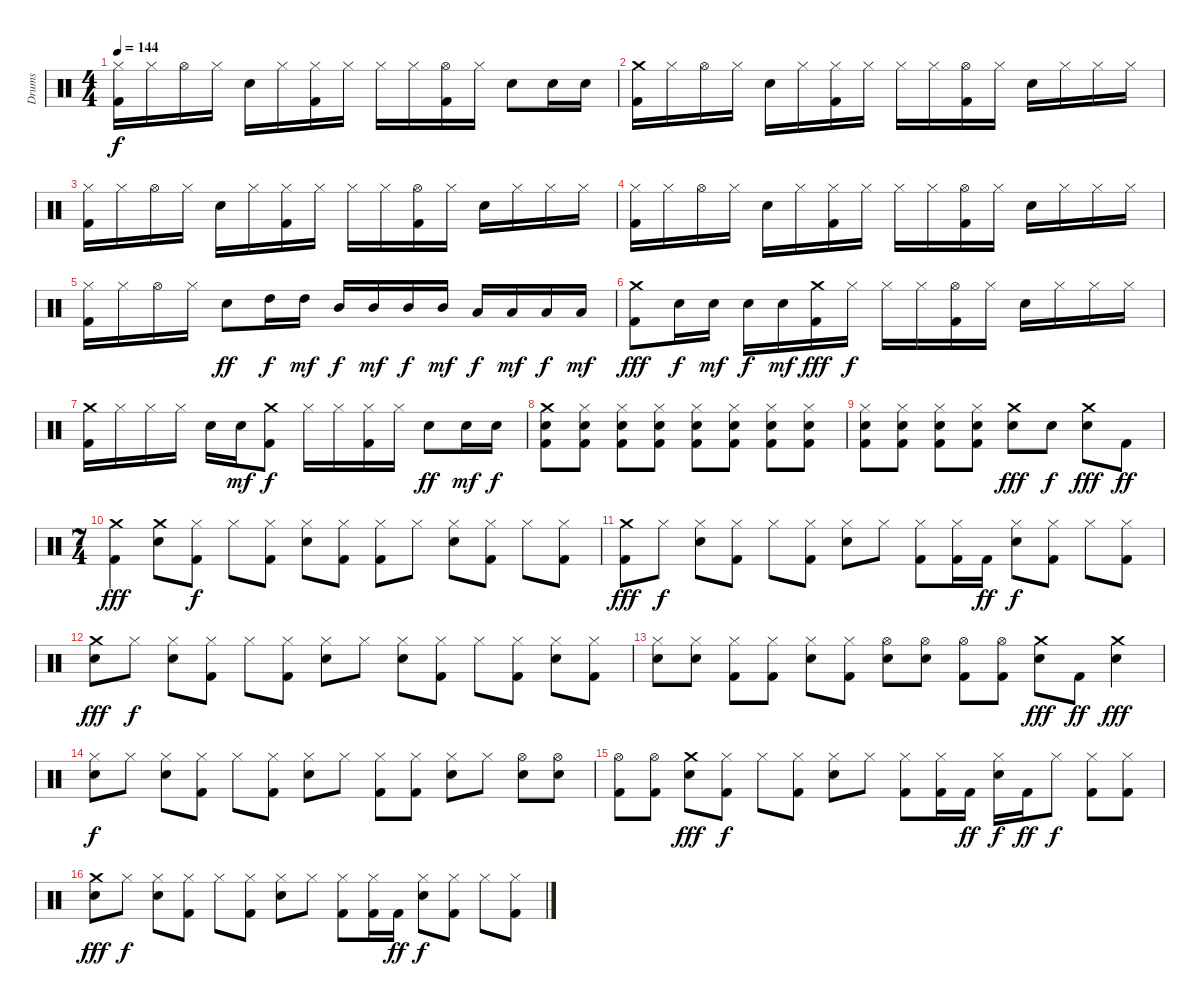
\bracketExtendMode groupsimilarinstruments
\otherSystemsTrackNameOrientation horizontal
\track ("Drumkit" "Drums") {instrument percussion}
\staff {score}
\articulation defaults
\ts (4 4)
\tempo 144
\clef neutral
\ks c
("Hi-Hat (closed)" "Kick (hit) 2").16{dy f beam Down} "Hi-Hat (closed)".16{beam Down} "Hi-Hat (open)".16{beam Down} "Hi-Hat (closed)".16{beam Down} "Snare (hit) 2".16{beam Down} "Hi-Hat (closed)".16{beam Down} ("Hi-Hat (closed)" "Kick (hit) 2").16{beam Down} "Hi-Hat (closed)".16{beam Down} "Hi-Hat (closed)".16{beam Down} "Hi-Hat (closed)".16{beam Down} ("Hi-Hat (open)" "Kick (hit) 2").16{beam Down} "Hi-Hat (closed)".16{beam Down} "Snare (hit) 2".8{beam Down} "Snare (hit) 2".16{beam Down} "Snare (hit) 2".16{beam Down} |
("Crash medium (hit)" "Kick (hit) 2").16{beam Down} "Hi-Hat (closed)".16{beam Down} "Hi-Hat (open)".16{beam Down} "Hi-Hat (closed)".16{beam Down} "Snare (hit) 2".16{beam Down} "Hi-Hat (closed)".16{beam Down} ("Hi-Hat (closed)" "Kick (hit) 2").16{beam Down} "Hi-Hat (closed)".16{beam Down} "Hi-Hat (closed)".16{beam Down} "Hi-Hat (closed)".16{beam Down} ("Hi-Hat (open)" "Kick (hit) 2").16{beam Down} "Hi-Hat (closed)".16{beam Down} "Snare (hit) 2".16{beam Down} "Hi-Hat (closed)".16{beam Down} "Hi-Hat (closed)".16{beam Down} "Hi-Hat (closed)".16{beam Down} |
("Hi-Hat (closed)" "Kick (hit) 2").16{beam Down} "Hi-Hat (closed)".16{beam Down} "Hi-Hat (open)".16{beam Down} "Hi-Hat (closed)".16{beam Down} "Snare (hit) 2".16{beam Down} "Hi-Hat (closed)".16{beam Down} ("Hi-Hat (closed)" "Kick (hit) 2").16{beam Down} "Hi-Hat (closed)".16{beam Down} "Hi-Hat (closed)".16{beam Down} "Hi-Hat (closed)".16{beam Down} ("Hi-Hat (open)" "Kick (hit) 2").16{beam Down} "Hi-Hat (closed)".16{beam Down} "Snare (hit) 2".16{beam Down} "Hi-Hat (closed)".16{beam Down} "Hi-Hat (closed)".16{beam Down} "Hi-Hat (closed)".16{beam Down} |
("Hi-Hat (closed)" "Kick (hit) 2").16{beam Down} "Hi-Hat (closed)".16{beam Down} "Hi-Hat (open)".16{beam Down} "Hi-Hat (closed)".16{beam Down} "Snare (hit) 2".16{beam Down} "Hi-Hat (closed)".16{beam Down} ("Hi-Hat (closed)" "Kick (hit) 2").16{beam Down} "Hi-Hat (closed)".16{beam Down} "Hi-Hat (closed)".16{beam Down} "Hi-Hat (closed)".16{beam Down} ("Hi-Hat (open)" "Kick (hit) 2").16{beam Down} "Hi-Hat (closed)".16{beam Down} "Snare (hit) 2".16{beam Down} "Hi-Hat (closed)".16{beam Down} "Hi-Hat (closed)".16{beam Down} "Hi-Hat (closed)".16{beam Down} |
("Hi-Hat (closed)" "Kick (hit) 2").16{beam Down} "Hi-Hat (closed)".16{beam Down} "Hi-Hat (open)".16{beam Down} "Hi-Hat (closed)".16{beam Down} "Snare (hit) 2".8{dy ff beam Down} "High Tom (hit)".16{dy f beam Down} "High Tom (hit)".16{dy mf beam Down} "Mid Tom (hit)".16{dy f beam Up} "Mid Tom (hit)".16{dy mf beam Up} "Mid Tom (hit)".16{dy f beam Up} "Mid Tom (hit)".16{dy mf beam Up} "Low Tom (hit)".16{dy f beam Up} "Low Tom (hit)".16{dy mf beam Up} "Low Tom (hit)".16{dy f beam Up} "Low Tom (hit)".16{dy mf beam Up} |
("Crash medium (hit)" "Kick (hit) 2").8{dy fff beam Down} "Snare (hit) 2".16{dy f beam Down} "Snare (hit) 2".16{dy mf beam Down} "Snare (hit) 2".16{dy f beam Down} "Snare (hit) 2".16{dy mf beam Down} ("Crash medium (hit)" "Kick (hit) 2").16{dy fff beam Down} "Hi-Hat (closed)".16{dy f beam Down} "Hi-Hat (closed)".16{beam Down} "Hi-Hat (closed)".16{beam Down} ("Hi-Hat (open)" "Kick (hit) 2").16{beam Down} "Hi-Hat (closed)".16{beam Down} "Snare (hit) 2".16{beam Down} "Hi-Hat (closed)".16{beam Down} "Hi-Hat (closed)".16{beam Down} "Hi-Hat (closed)".16{beam Down} |
("Crash medium (hit)" "Kick (hit) 2").16{beam Down} "Hi-Hat (closed)".16{beam Down} "Hi-Hat (closed)".16{beam Down} "Hi-Hat (closed)".16{beam Down} "Snare (hit) 2".16{beam Down} "Snare (hit) 2".16{dy mf beam Down} ("Crash medium (hit)" "Kick (hit) 2").8{dy f beam Down} "Hi-Hat (closed)".16{beam Down} "Hi-Hat (closed)".16{beam Down} ("Hi-Hat (closed)" "Kick (hit) 2").16{beam Down} "Hi-Hat (closed)".16{beam Down} "Snare (hit) 2".8{dy ff beam Down} "Snare (hit) 2".16{dy mf beam Down} "Snare (hit) 2".16{dy f beam Down} |
("Crash medium (hit)" "Snare (hit) 2" "Kick (hit) 2").8{beam Down} ("Hi-Hat (closed)" "Snare (hit) 2" "Kick (hit) 2").8{beam Down} ("Hi-Hat (closed)" "Snare (hit) 2" "Kick (hit) 2").8{beam Down} ("Hi-Hat (closed)" "Snare (hit) 2" "Kick (hit) 2").8{beam Down} ("Hi-Hat (closed)" "Snare (hit) 2" "Kick (hit) 2").8{beam Down} ("Hi-Hat (closed)" "Snare (hit) 2" "Kick (hit) 2").8{beam Down} ("Hi-Hat (closed)" "Snare (hit) 2" "Kick (hit) 2").8{beam Down} ("Hi-Hat (closed)" "Snare (hit) 2" "Kick (hit) 2").8{beam Down} |
("Hi-Hat (closed)" "Snare (hit) 2" "Kick (hit) 2").8{beam Down} ("Hi-Hat (closed)" "Snare (hit) 2" "Kick (hit) 2").8{beam Down} ("Hi-Hat (closed)" "Snare (hit) 2" "Kick (hit) 2").8{beam Down} ("Hi-Hat (closed)" "Snare (hit) 2" "Kick (hit) 2").8{beam Down} ("Crash medium (hit)" "Snare (hit) 2").8{dy fff beam Down} "Snare (hit) 2".8{dy f beam Down} ("Crash medium (hit)" "Snare (hit) 2").8{dy fff beam Down} "Kick (hit) 2".8{dy ff beam Down} |
\ts (7 4)
("Crash medium (hit)" "Kick (hit) 2").4{dy fff beam Down} ("Crash medium (hit)" "Snare (hit) 2").8{beam Down} ("Hi-Hat (closed)" "Kick (hit) 2").8{dy f beam Down} "Hi-Hat (closed)".8{beam Down} ("Hi-Hat (closed)" "Kick (hit) 2").8{beam Down} ("Hi-Hat (closed)" "Snare (hit) 2").8{beam Down} ("Hi-Hat (closed)" "Kick (hit) 2").8{beam Down} ("Hi-Hat (closed)" "Kick (hit) 2").8{beam Down} "Hi-Hat (closed)".8{beam Down} ("Hi-Hat (closed)" "Snare (hit) 2").8{beam Down} ("Hi-Hat (closed)" "Kick (hit) 2").8{beam Down} "Hi-Hat (closed)".8{beam Down} ("Hi-Hat (closed)" "Kick (hit) 2").8{beam Down} |
("Crash medium (hit)" "Kick (hit) 2").8{dy fff beam Down} "Hi-Hat (closed)".8{dy f beam Down} ("Hi-Hat (closed)" "Snare (hit) 2").8{beam Down} ("Hi-Hat (closed)" "Kick (hit) 2").8{beam Down} "Hi-Hat (closed)".8{beam Down} ("Hi-Hat (closed)" "Kick (hit) 2").8{beam Down} ("Hi-Hat (closed)" "Snare (hit) 2").8{beam Down} "Hi-Hat (closed)".8{beam Down} ("Hi-Hat (closed)" "Kick (hit) 2").8{beam Down} ("Hi-Hat (closed)" "Kick (hit) 2").16{beam Down} "Kick (hit) 2".16{dy ff beam Down} ("Hi-Hat (closed)" "Snare (hit) 2").8{dy f beam Down} ("Hi-Hat (closed)" "Kick (hit) 2").8{beam Down} "Hi-Hat (closed)".8{beam Down} ("Hi-Hat (closed)" "Kick (hit) 2").8{beam Down} |
("Crash medium (hit)" "Snare (hit) 2").8{dy fff beam Down} "Hi-Hat (closed)".8{dy f beam Down} ("Hi-Hat (closed)" "Snare (hit) 2").8{beam Down} ("Hi-Hat (closed)" "Kick (hit) 2").8{beam Down} "Hi-Hat (closed)".8{beam Down} ("Hi-Hat (closed)" "Kick (hit) 2").8{beam Down} ("Hi-Hat (closed)" "Snare (hit) 2").8{beam Down} "Hi-Hat (closed)".8{beam Down} ("Hi-Hat (closed)" "Snare (hit) 2").8{beam Down} ("Hi-Hat (closed)" "Kick (hit) 2").8{beam Down} "Hi-Hat (closed)".8{beam Down} ("Hi-Hat (closed)" "Kick (hit) 2").8{beam Down} ("Hi-Hat (closed)" "Snare (hit) 2").8{beam Down} ("Hi-Hat (closed)" "Kick (hit) 2").8{beam Down} |
("Hi-Hat (closed)" "Snare (hit) 2").8{beam Down} ("Hi-Hat (closed)" "Snare (hit) 2").8{beam Down} ("Hi-Hat (closed)" "Kick (hit) 2").8{beam Down} ("Hi-Hat (closed)" "Kick (hit) 2").8{beam Down} ("Hi-Hat (closed)" "Snare (hit) 2").8{beam Down} ("Hi-Hat (closed)" "Kick (hit) 2").8{beam Down} ("Hi-Hat (open)" "Snare (hit) 2").8{beam Down} ("Hi-Hat (open)" "Snare (hit) 2").8{beam Down} ("Hi-Hat (open)" "Kick (hit) 2").8{beam Down} ("Hi-Hat (open)" "Kick (hit) 2").8{beam Down} ("Crash medium (hit)" "Snare (hit) 2").8{dy fff beam Down} "Kick (hit) 2".8{dy ff beam Down} ("Crash medium (hit)" "Snare (hit) 2").4{dy fff beam Down} |
("Hi-Hat (closed)" "Snare (hit) 2").8{dy f beam Down} "Hi-Hat (closed)".8{beam Down} ("Hi-Hat (closed)" "Snare (hit) 2").8{beam Down} ("Hi-Hat (closed)" "Kick (hit) 2").8{beam Down} "Hi-Hat (closed)".8{beam Down} ("Hi-Hat (closed)" "Kick (hit) 2").8{beam Down} ("Hi-Hat (closed)" "Snare (hit) 2").8{beam Down} "Hi-Hat (closed)".8{beam Down} ("Hi-Hat (closed)" "Kick (hit) 2").8{beam Down} ("Hi-Hat (closed)" "Kick (hit) 2").8{beam Down} ("Hi-Hat (closed)" "Snare (hit) 2").8{beam Down} "Hi-Hat (closed)".8{beam Down} ("Hi-Hat (open)" "Snare (hit) 2").8{beam Down} ("Hi-Hat (open)" "Snare (hit) 2").8{beam Down} |
("Hi-Hat (open)" "Kick (hit) 2").8{beam Down} ("Hi-Hat (open)" "Kick (hit) 2").8{beam Down} ("Crash medium (hit)" "Snare (hit) 2").8{dy fff beam Down} ("Hi-Hat (closed)" "Kick (hit) 2").8{dy f beam Down} "Hi-Hat (closed)".8{beam Down} ("Hi-Hat (closed)" "Kick (hit) 2").8{beam Down} ("Hi-Hat (closed)" "Snare (hit) 2").8{beam Down} "Hi-Hat (closed)".8{beam Down} ("Hi-Hat (closed)" "Kick (hit) 2").8{beam Down} ("Hi-Hat (closed)" "Kick (hit) 2").16{beam Down} "Kick (hit) 2".16{dy ff beam Down} ("Hi-Hat (closed)" "Snare (hit) 2").16{dy f beam Down} "Kick (hit) 2".16{dy ff beam Down} "Hi-Hat (closed)".8{dy f beam Down} ("Hi-Hat (closed)" "Kick (hit) 2").8{beam Down} ("Hi-Hat (closed)" "Kick (hit) 2").8{beam Down} |
("Crash medium (hit)" "Snare (hit) 2").8{dy fff beam Down} "Hi-Hat (closed)".8{dy f beam Down} ("Hi-Hat (closed)" "Snare (hit) 2").8{beam Down} ("Hi-Hat (closed)" "Kick (hit) 2").8{beam Down} "Hi-Hat (closed)".8{beam Down} ("Hi-Hat (closed)" "Kick (hit) 2").8{beam Down} ("Hi-Hat (closed)" "Snare (hit) 2").8{beam Down} "Hi-Hat (closed)".8{beam Down} ("Hi-Hat (closed)" "Kick (hit) 2").8{beam Down} ("Hi-Hat (closed)" "Kick (hit) 2").16{beam Down} "Kick (hit) 2".16{dy ff beam Down} ("Hi-Hat (closed)" "Snare (hit) 2").8{dy f beam Down} ("Hi-Hat (closed)" "Kick (hit) 2").8{beam Down} "Hi-Hat (closed)".8{beam Down} ("Hi-Hat (closed)" "Kick (hit) 2").8{beam Down}
